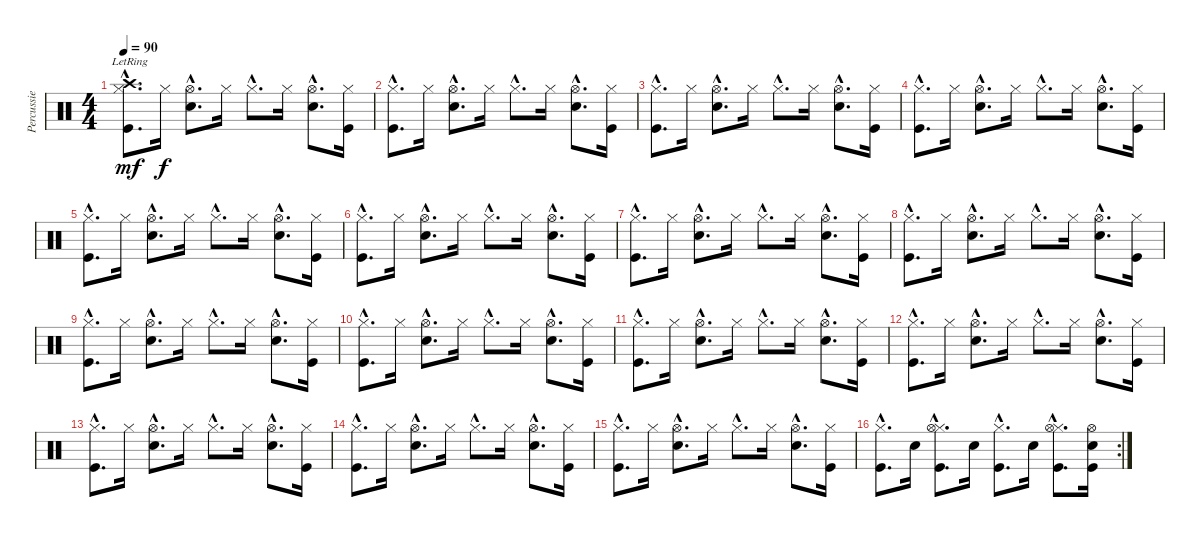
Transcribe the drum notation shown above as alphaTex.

\track ("Percussie" "Percussie") {instrument percussion}
\staff {score}
\articulation defaults
\ts (4 4)
\tempo 90
\clef neutral
\ks c
("Hi-Hat (closed)"{hac} "Crash high (hit)"{hac lr} "Kick (hit)"{hac}).8{d dy mf} "Hi-Hat (closed)".16{dy f} ("Snare (hit) 2"{hac} "Hi-Hat (open)"{hac}).8{d} "Hi-Hat (closed)".16 "Hi-Hat (closed)"{hac}.8{d} "Hi-Hat (closed)".16 ("Snare (hit) 2"{hac} "Hi-Hat (open)"{hac}).8{d} ("Hi-Hat (closed)" "Kick (hit)").16 |
("Hi-Hat (closed)"{hac} "Kick (hit)"{hac}).8{d} "Hi-Hat (closed)".16 ("Snare (hit) 2"{hac} "Hi-Hat (open)"{hac}).8{d} "Hi-Hat (closed)".16 "Hi-Hat (closed)"{hac}.8{d} "Hi-Hat (closed)".16 ("Snare (hit) 2"{hac} "Hi-Hat (open)"{hac}).8{d} ("Hi-Hat (closed)" "Kick (hit)").16 |
("Hi-Hat (closed)"{hac} "Kick (hit)"{hac}).8{d} "Hi-Hat (closed)".16 ("Snare (hit) 2"{hac} "Hi-Hat (open)"{hac}).8{d} "Hi-Hat (closed)".16 "Hi-Hat (closed)"{hac}.8{d} "Hi-Hat (closed)".16 ("Snare (hit) 2"{hac} "Hi-Hat (open)"{hac}).8{d} ("Hi-Hat (closed)" "Kick (hit)").16 |
("Hi-Hat (closed)"{hac} "Kick (hit)"{hac}).8{d} "Hi-Hat (closed)".16 ("Snare (hit) 2"{hac} "Hi-Hat (open)"{hac}).8{d} "Hi-Hat (closed)".16 "Hi-Hat (closed)"{hac}.8{d} "Hi-Hat (closed)".16 ("Snare (hit) 2"{hac} "Hi-Hat (open)"{hac}).8{d} ("Hi-Hat (closed)" "Kick (hit)").16 |
("Hi-Hat (closed)"{hac} "Kick (hit)"{hac}).8{d} "Hi-Hat (closed)".16 ("Snare (hit) 2"{hac} "Hi-Hat (open)"{hac}).8{d} "Hi-Hat (closed)".16 "Hi-Hat (closed)"{hac}.8{d} "Hi-Hat (closed)".16 ("Snare (hit) 2"{hac} "Hi-Hat (open)"{hac}).8{d} ("Hi-Hat (closed)" "Kick (hit)").16 |
("Hi-Hat (closed)"{hac} "Kick (hit)"{hac}).8{d} "Hi-Hat (closed)".16 ("Snare (hit) 2"{hac} "Hi-Hat (open)"{hac}).8{d} "Hi-Hat (closed)".16 "Hi-Hat (closed)"{hac}.8{d} "Hi-Hat (closed)".16 ("Snare (hit) 2"{hac} "Hi-Hat (open)"{hac}).8{d} ("Hi-Hat (closed)" "Kick (hit)").16 |
("Hi-Hat (closed)"{hac} "Kick (hit)"{hac}).8{d} "Hi-Hat (closed)".16 ("Snare (hit) 2"{hac} "Hi-Hat (open)"{hac}).8{d} "Hi-Hat (closed)".16 "Hi-Hat (closed)"{hac}.8{d} "Hi-Hat (closed)".16 ("Snare (hit) 2"{hac} "Hi-Hat (open)"{hac}).8{d} ("Hi-Hat (closed)" "Kick (hit)").16 |
("Hi-Hat (closed)"{hac} "Kick (hit)"{hac}).8{d} "Hi-Hat (closed)".16 ("Snare (hit) 2"{hac} "Hi-Hat (open)"{hac}).8{d} "Hi-Hat (closed)".16 "Hi-Hat (closed)"{hac}.8{d} "Hi-Hat (closed)".16 ("Snare (hit) 2"{hac} "Hi-Hat (open)"{hac}).8{d} ("Hi-Hat (closed)" "Kick (hit)").16 |
("Hi-Hat (closed)"{hac} "Kick (hit)"{hac}).8{d} "Hi-Hat (closed)".16 ("Snare (hit) 2"{hac} "Hi-Hat (open)"{hac}).8{d} "Hi-Hat (closed)".16 "Hi-Hat (closed)"{hac}.8{d} "Hi-Hat (closed)".16 ("Snare (hit) 2"{hac} "Hi-Hat (open)"{hac}).8{d} ("Hi-Hat (closed)" "Kick (hit)").16 |
("Hi-Hat (closed)"{hac} "Kick (hit)"{hac}).8{d} "Hi-Hat (closed)".16 ("Snare (hit) 2"{hac} "Hi-Hat (open)"{hac}).8{d} "Hi-Hat (closed)".16 "Hi-Hat (closed)"{hac}.8{d} "Hi-Hat (closed)".16 ("Snare (hit) 2"{hac} "Hi-Hat (open)"{hac}).8{d} ("Hi-Hat (closed)" "Kick (hit)").16 |
("Hi-Hat (closed)"{hac} "Kick (hit)"{hac}).8{d} "Hi-Hat (closed)".16 ("Snare (hit) 2"{hac} "Hi-Hat (open)"{hac}).8{d} "Hi-Hat (closed)".16 "Hi-Hat (closed)"{hac}.8{d} "Hi-Hat (closed)".16 ("Snare (hit) 2"{hac} "Hi-Hat (open)"{hac}).8{d} ("Hi-Hat (closed)" "Kick (hit)").16 |
("Hi-Hat (closed)"{hac} "Kick (hit)"{hac}).8{d} "Hi-Hat (closed)".16 ("Snare (hit) 2"{hac} "Hi-Hat (open)"{hac}).8{d} "Hi-Hat (closed)".16 "Hi-Hat (closed)"{hac}.8{d} "Hi-Hat (closed)".16 ("Snare (hit) 2"{hac} "Hi-Hat (open)"{hac}).8{d} ("Hi-Hat (closed)" "Kick (hit)").16 |
("Hi-Hat (closed)"{hac} "Kick (hit)"{hac}).8{d} "Hi-Hat (closed)".16 ("Snare (hit) 2"{hac} "Hi-Hat (open)"{hac}).8{d} "Hi-Hat (closed)".16 "Hi-Hat (closed)"{hac}.8{d} "Hi-Hat (closed)".16 ("Snare (hit) 2"{hac} "Hi-Hat (open)"{hac}).8{d} ("Hi-Hat (closed)" "Kick (hit)").16 |
("Hi-Hat (closed)"{hac} "Kick (hit)"{hac}).8{d} "Hi-Hat (closed)".16 ("Snare (hit) 2"{hac} "Hi-Hat (open)"{hac}).8{d} "Hi-Hat (closed)".16 "Hi-Hat (closed)"{hac}.8{d} "Hi-Hat (closed)".16 ("Snare (hit) 2"{hac} "Hi-Hat (open)"{hac}).8{d} ("Hi-Hat (closed)" "Kick (hit)").16 |
("Hi-Hat (closed)"{hac} "Kick (hit)"{hac}).8{d} "Hi-Hat (closed)".16 ("Snare (hit) 2"{hac} "Hi-Hat (open)"{hac}).8{d} "Hi-Hat (closed)".16 "Hi-Hat (closed)"{hac}.8{d} "Hi-Hat (closed)".16 ("Snare (hit) 2"{hac} "Hi-Hat (open)"{hac}).8{d} ("Hi-Hat (closed)" "Kick (hit)").16 |
\rc 2
("Hi-Hat (closed)"{hac} "Kick (hit)"{hac}).8{d} "Snare (hit) 2".16 ("Hi-Hat (closed)"{hac} "Kick (hit)"{hac} "Hi-Hat (open)"{hac}).8{d} "Snare (hit) 2".16 ("Hi-Hat (closed)"{hac} "Kick (hit)"{hac}).8{d} "Snare (hit) 2".16 ("Hi-Hat (closed)"{hac} "Kick (hit)"{hac} "Hi-Hat (open)"{hac}).8{d} ("Hi-Hat (open)" "Snare (hit) 2" "Kick (hit)").16
